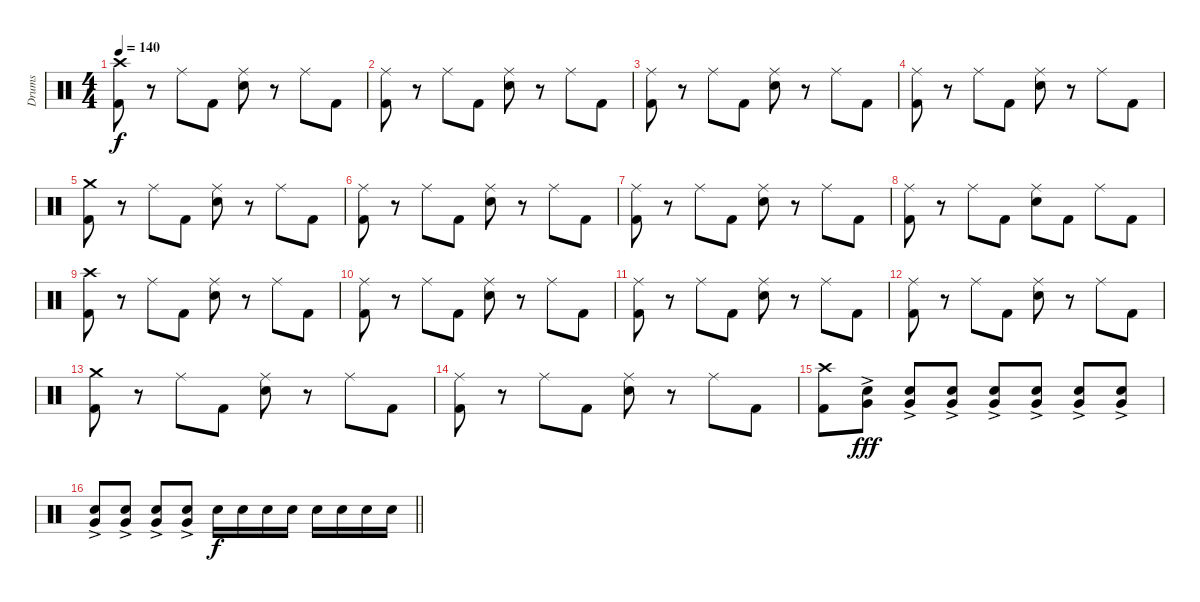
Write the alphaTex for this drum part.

\track ("Drums" "Drums") {instrument percussion}
\staff {score}
\articulation defaults
\ts (4 4)
\tempo 140
\clef neutral
\ks c
("Crash high (hit)" "Kick (hit) 2").8{dy f} r.8 "Ride (middle)".8 "Kick (hit) 2".8 ("Ride (middle)" "Electric Snare (hit)").8 r.8 "Ride (middle)".8 "Kick (hit) 2".8 |
("Ride (middle)" "Kick (hit) 2").8 r.8 "Ride (middle)".8 "Kick (hit) 2".8 ("Ride (middle)" "Electric Snare (hit)").8 r.8 "Ride (middle)".8 "Kick (hit) 2".8 |
("Ride (middle)" "Kick (hit) 2").8 r.8 "Ride (middle)".8 "Kick (hit) 2".8 ("Ride (middle)" "Electric Snare (hit)").8 r.8 "Ride (middle)".8 "Kick (hit) 2".8 |
("Ride (middle)" "Kick (hit) 2").8 r.8 "Ride (middle)".8 "Kick (hit) 2".8 ("Ride (middle)" "Electric Snare (hit)").8 r.8 "Ride (middle)".8 "Kick (hit) 2".8 |
("Crash medium (hit)" "Kick (hit) 2").8 r.8 "Ride (middle)".8 "Kick (hit) 2".8 ("Ride (middle)" "Electric Snare (hit)").8 r.8 "Ride (middle)".8 "Kick (hit) 2".8 |
("Ride (middle)" "Kick (hit) 2").8 r.8 "Ride (middle)".8 "Kick (hit) 2".8 ("Ride (middle)" "Electric Snare (hit)").8 r.8 "Ride (middle)".8 "Kick (hit) 2".8 |
("Ride (middle)" "Kick (hit) 2").8 r.8 "Ride (middle)".8 "Kick (hit) 2".8 ("Ride (middle)" "Electric Snare (hit)").8 r.8 "Ride (middle)".8 "Kick (hit) 2".8 |
("Ride (middle)" "Kick (hit) 2").8 r.8 "Ride (middle)".8 "Kick (hit) 2".8 ("Ride (middle)" "Electric Snare (hit)").8 "Kick (hit) 2".8 "Ride (middle)".8 "Kick (hit) 2".8 |
("Crash high (hit)" "Kick (hit) 2").8 r.8 "Ride (middle)".8 "Kick (hit) 2".8 ("Ride (middle)" "Electric Snare (hit)").8 r.8 "Ride (middle)".8 "Kick (hit) 2".8 |
("Ride (middle)" "Kick (hit) 2").8 r.8 "Ride (middle)".8 "Kick (hit) 2".8 ("Ride (middle)" "Electric Snare (hit)").8 r.8 "Ride (middle)".8 "Kick (hit) 2".8 |
("Ride (middle)" "Kick (hit) 2").8 r.8 "Ride (middle)".8 "Kick (hit) 2".8 ("Ride (middle)" "Electric Snare (hit)").8 r.8 "Ride (middle)".8 "Kick (hit) 2".8 |
("Ride (middle)" "Kick (hit) 2").8 r.8 "Ride (middle)".8 "Kick (hit) 2".8 ("Ride (middle)" "Electric Snare (hit)").8 r.8 "Ride (middle)".8 "Kick (hit) 2".8 |
("Crash medium (hit)" "Kick (hit) 2").8 r.8 "Ride (middle)".8 "Kick (hit) 2".8 ("Ride (middle)" "Electric Snare (hit)").8 r.8 "Ride (middle)".8 "Kick (hit) 2".8 |
("Ride (middle)" "Kick (hit) 2").8 r.8 "Ride (middle)".8 "Kick (hit) 2".8 ("Ride (middle)" "Electric Snare (hit)").8 r.8 "Ride (middle)".8 "Kick (hit) 2".8 |
("Crash high (hit)" "Kick (hit) 2").8 ("Very Low Tom (hit)"{ac} "Electric Snare (hit)").8{dy fff} ("Very Low Tom (hit)"{ac} "Electric Snare (hit)").8 ("Very Low Tom (hit)"{ac} "Electric Snare (hit)").8 ("Very Low Tom (hit)"{ac} "Electric Snare (hit)").8 ("Very Low Tom (hit)"{ac} "Electric Snare (hit)").8 ("Very Low Tom (hit)"{ac} "Electric Snare (hit)").8 ("Very Low Tom (hit)"{ac} "Electric Snare (hit)").8 |
\barLineRight lightlight
("Very Low Tom (hit)"{ac} "Electric Snare (hit)").8 ("Very Low Tom (hit)"{ac} "Electric Snare (hit)").8 ("Very Low Tom (hit)"{ac} "Electric Snare (hit)").8 ("Very Low Tom (hit)"{ac} "Electric Snare (hit)").8 "Electric Snare (hit)".16{dy f} "Electric Snare (hit)".16 "Electric Snare (hit)".16 "Electric Snare (hit)".16 "Electric Snare (hit)".16 "Electric Snare (hit)".16 "Electric Snare (hit)".16 "Electric Snare (hit)".16
